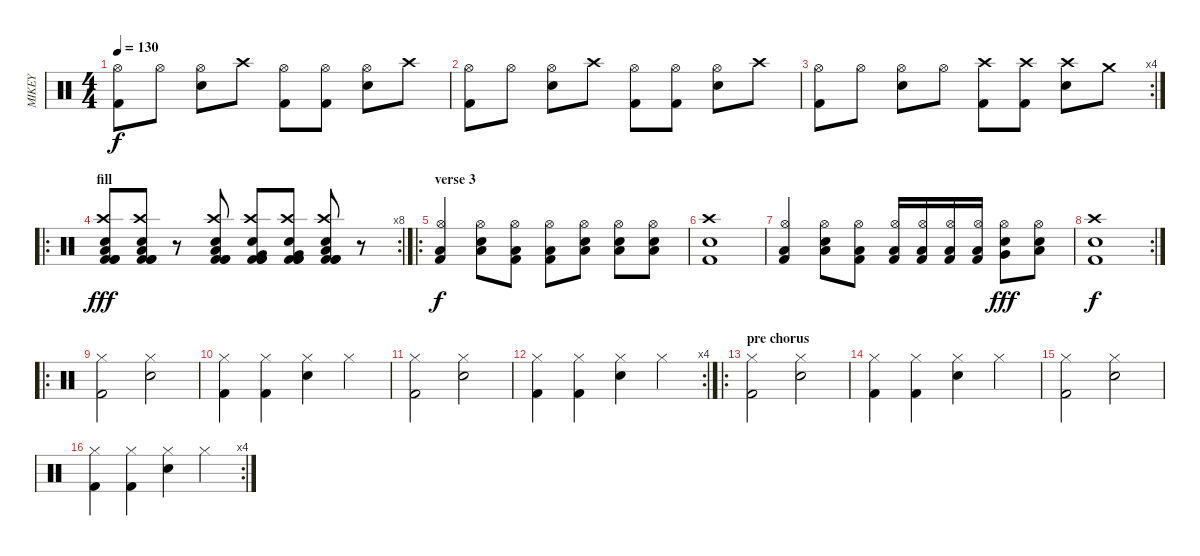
\track ("MIKEY" "MIKEY") {instrument percussion}
\staff {score}
\articulation defaults
\ts (4 4)
\tempo 130
\clef neutral
\ks c
("Kick (hit) 2" "Hi-Hat (open)").8{dy f} "Hi-Hat (open)".8 ("Electric Snare (hit)" "Hi-Hat (open)").8 "Crash high (hit)".8 ("Kick (hit) 2" "Hi-Hat (open)").8 ("Kick (hit) 2" "Hi-Hat (open)").8 ("Electric Snare (hit)" "Hi-Hat (open)").8 "Crash high (hit)".8 |
("Kick (hit) 2" "Hi-Hat (open)").8 "Hi-Hat (open)".8 ("Electric Snare (hit)" "Hi-Hat (open)").8 "Crash high (hit)".8 ("Kick (hit) 2" "Hi-Hat (open)").8 ("Kick (hit) 2" "Hi-Hat (open)").8 ("Electric Snare (hit)" "Hi-Hat (open)").8 "Crash high (hit)".8 |
\rc 4
("Kick (hit) 2" "Hi-Hat (open)").8 "Hi-Hat (open)".8 ("Electric Snare (hit)" "Hi-Hat (open)").8 "Hi-Hat (open)".8 ("Kick (hit) 2" "Crash high (hit)").8 ("Kick (hit) 2" "Crash high (hit)").8 ("Electric Snare (hit)" "Crash high (hit)").8 "Crash medium (hit)".8 |
\ro
\rc 8
\section ("" "fill")
("Crash high (hit)" "Kick (hit) 2" "Low Tom (hit)" "Snare (hit) 2" "Kick (hit) 2" "Kick (hit) 2").8{dy fff} ("Crash high (hit)" "Kick (hit) 2" "Low Tom (hit)" "Snare (hit) 2" "Kick (hit) 2" "Kick (hit) 2").8 r.8 ("Crash high (hit)" "Kick (hit) 2" "Low Tom (hit)" "Snare (hit) 2" "Kick (hit) 2" "Kick (hit) 2").8 ("Crash high (hit)" "Kick (hit) 2" "Very Low Tom (hit)" "Snare (hit) 2" "Kick (hit) 2" "Kick (hit) 2").8 ("Crash high (hit)" "Kick (hit) 2" "Very Low Tom (hit)" "Snare (hit) 2" "Kick (hit) 2" "Kick (hit) 2").8 ("Crash high (hit)" "Kick (hit) 2" "Low Floor Tom (hit)" "Snare (hit) 2" "Kick (hit) 2" "Kick (hit) 2").8 r.8 |
\ro
\section ("" "verse 3")
("Hi-Hat (open)" "Low Floor Tom (hit)" "Kick (hit) 2").4{dy f} ("Hi-Hat (open)" "Low Floor Tom (hit)" "Electric Snare (hit)").8 ("Hi-Hat (open)" "Low Floor Tom (hit)" "Kick (hit) 2").8 ("Hi-Hat (open)" "Low Floor Tom (hit)" "Kick (hit) 2").8 ("Hi-Hat (open)" "Low Floor Tom (hit)" "Electric Snare (hit)").8 ("Hi-Hat (open)" "Low Floor Tom (hit)" "Electric Snare (hit)").8 ("Hi-Hat (open)" "Low Floor Tom (hit)" "Electric Snare (hit)").8 |
("Kick (hit) 2" "Crash high (hit)" "Electric Snare (hit)").1 |
("Hi-Hat (open)" "Low Floor Tom (hit)" "Kick (hit) 2").4 ("Hi-Hat (open)" "Low Floor Tom (hit)" "Electric Snare (hit)").8 ("Hi-Hat (open)" "Low Floor Tom (hit)" "Kick (hit) 2").8 ("Hi-Hat (open)" "Low Floor Tom (hit)" "Kick (hit) 2").16 ("Hi-Hat (open)" "Low Floor Tom (hit)" "Kick (hit) 2").16 ("Hi-Hat (open)" "Low Floor Tom (hit)" "Kick (hit) 2").16 ("Hi-Hat (open)" "Low Floor Tom (hit)" "Kick (hit) 2").16 ("Hi-Hat (open)" "Very Low Tom (hit)" "Electric Snare (hit)").8{dy fff} ("Hi-Hat (open)" "Low Tom (hit)" "Electric Snare (hit)").8 |
\rc 2
("Kick (hit) 2" "Crash high (hit)" "Electric Snare (hit)").1{dy f} |
\ro
("Hi-Hat (closed)" "Kick (hit) 2").2 ("Hi-Hat (closed)" "Electric Snare (hit)").2 |
("Hi-Hat (closed)" "Kick (hit) 2").4 ("Hi-Hat (closed)" "Kick (hit) 2").4 ("Hi-Hat (closed)" "Electric Snare (hit)").4 "Hi-Hat (closed)".4 |
("Hi-Hat (closed)" "Kick (hit) 2").2 ("Hi-Hat (closed)" "Electric Snare (hit)").2 |
\rc 4
("Hi-Hat (closed)" "Kick (hit) 2").4 ("Hi-Hat (closed)" "Kick (hit) 2").4 ("Hi-Hat (closed)" "Electric Snare (hit)").4 "Hi-Hat (closed)".4 |
\ro
\section ("" "pre chorus")
("Hi-Hat (closed)" "Kick (hit) 2").2 ("Hi-Hat (closed)" "Electric Snare (hit)").2 |
("Hi-Hat (closed)" "Kick (hit) 2").4 ("Hi-Hat (closed)" "Kick (hit) 2").4 ("Hi-Hat (closed)" "Electric Snare (hit)").4 "Hi-Hat (closed)".4 |
("Hi-Hat (closed)" "Kick (hit) 2").2 ("Hi-Hat (closed)" "Electric Snare (hit)").2 |
\rc 4
("Hi-Hat (closed)" "Kick (hit) 2").4 ("Hi-Hat (closed)" "Kick (hit) 2").4 ("Hi-Hat (closed)" "Electric Snare (hit)").4 "Hi-Hat (closed)".4
